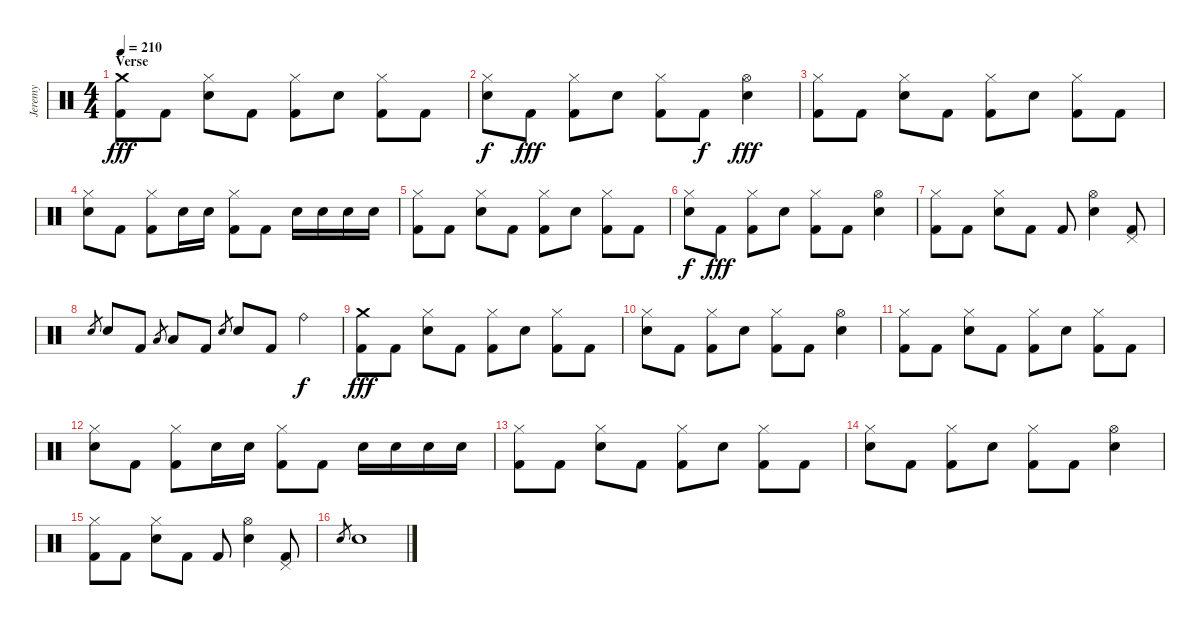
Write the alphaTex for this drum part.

\track ("Jeremy" "Jeremy") {instrument percussion}
\staff {score}
\articulation defaults
\ts (4 4)
\section ("" "Verse")
\tempo 210
\clef neutral
\ks c
("Crash medium (hit)" "Kick (hit) 2").8{dy fff} "Kick (hit) 2".8 ("Hi-Hat (closed)" "Electric Snare (hit)").8 "Kick (hit) 2".8 ("Hi-Hat (closed)" "Kick (hit) 2").8 "Electric Snare (hit)".8 ("Hi-Hat (closed)" "Kick (hit) 2").8 "Kick (hit) 2".8 |
("Hi-Hat (closed)" "Electric Snare (hit)").8{dy f} "Kick (hit) 2".8{dy fff} ("Hi-Hat (closed)" "Kick (hit) 2").8 "Electric Snare (hit)".8 ("Hi-Hat (closed)" "Kick (hit) 2").8 "Kick (hit) 2".8{dy f} ("Hi-Hat (open)" "Electric Snare (hit)").4{dy fff} |
("Hi-Hat (closed)" "Kick (hit) 2").8 "Kick (hit) 2".8 ("Hi-Hat (closed)" "Electric Snare (hit)").8 "Kick (hit) 2".8 ("Hi-Hat (closed)" "Kick (hit) 2").8 "Electric Snare (hit)".8 ("Hi-Hat (closed)" "Kick (hit) 2").8 "Kick (hit) 2".8 |
("Hi-Hat (closed)" "Electric Snare (hit)").8 "Kick (hit) 2".8 ("Hi-Hat (closed)" "Kick (hit) 2").8 "Electric Snare (hit)".16 "Electric Snare (hit)".16 ("Hi-Hat (closed)" "Kick (hit) 2").8 "Kick (hit) 2".8 "Electric Snare (hit)".16 "Electric Snare (hit)".16 "Electric Snare (hit)".16 "Electric Snare (hit)".16 |
("Hi-Hat (closed)" "Kick (hit) 2").8 "Kick (hit) 2".8 ("Hi-Hat (closed)" "Electric Snare (hit)").8 "Kick (hit) 2".8 ("Hi-Hat (closed)" "Kick (hit) 2").8 "Electric Snare (hit)".8 ("Hi-Hat (closed)" "Kick (hit) 2").8 "Kick (hit) 2".8 |
("Hi-Hat (closed)" "Electric Snare (hit)").8{dy f} "Kick (hit) 2".8{dy fff} ("Hi-Hat (closed)" "Kick (hit) 2").8 "Electric Snare (hit)".8 ("Hi-Hat (closed)" "Kick (hit) 2").8 "Kick (hit) 2".8 ("Hi-Hat (open)" "Electric Snare (hit)").4 |
("Hi-Hat (closed)" "Kick (hit) 2").8 "Kick (hit) 2".8 ("Hi-Hat (closed)" "Electric Snare (hit)").8 "Kick (hit) 2".8 "Kick (hit) 2".8 ("Hi-Hat (open)" "Electric Snare (hit)").4 ("Pedal Hi-Hat (hit)" "Kick (hit) 2").8 |
"Electric Snare (hit)".8{gr} "Electric Snare (hit)".8 "Kick (hit) 2".8 "Low Tom (hit)".8{gr} "Low Tom (hit)".8 "Kick (hit) 2".8 "Electric Snare (hit)".8{gr} "Electric Snare (hit)".8 "Kick (hit) 2".8 "Ride (bell)".4{dy f} |
("Crash medium (hit)" "Kick (hit) 2").8{dy fff} "Kick (hit) 2".8 ("Hi-Hat (closed)" "Electric Snare (hit)").8 "Kick (hit) 2".8 ("Hi-Hat (closed)" "Kick (hit) 2").8 "Electric Snare (hit)".8 ("Hi-Hat (closed)" "Kick (hit) 2").8 "Kick (hit) 2".8 |
("Hi-Hat (closed)" "Electric Snare (hit)").8 "Kick (hit) 2".8 ("Hi-Hat (closed)" "Kick (hit) 2").8 "Electric Snare (hit)".8 ("Hi-Hat (closed)" "Kick (hit) 2").8 "Kick (hit) 2".8 ("Hi-Hat (open)" "Electric Snare (hit)").4 |
("Hi-Hat (closed)" "Kick (hit) 2").8 "Kick (hit) 2".8 ("Hi-Hat (closed)" "Electric Snare (hit)").8 "Kick (hit) 2".8 ("Hi-Hat (closed)" "Kick (hit) 2").8 "Electric Snare (hit)".8 ("Hi-Hat (closed)" "Kick (hit) 2").8 "Kick (hit) 2".8 |
("Hi-Hat (closed)" "Electric Snare (hit)").8 "Kick (hit) 2".8 ("Hi-Hat (closed)" "Kick (hit) 2").8 "Electric Snare (hit)".16 "Electric Snare (hit)".16 ("Hi-Hat (closed)" "Kick (hit) 2").8 "Kick (hit) 2".8 "Electric Snare (hit)".16 "Electric Snare (hit)".16 "Electric Snare (hit)".16 "Electric Snare (hit)".16 |
("Hi-Hat (closed)" "Kick (hit) 2").8 "Kick (hit) 2".8 ("Hi-Hat (closed)" "Electric Snare (hit)").8 "Kick (hit) 2".8 ("Hi-Hat (closed)" "Kick (hit) 2").8 "Electric Snare (hit)".8 ("Hi-Hat (closed)" "Kick (hit) 2").8 "Kick (hit) 2".8 |
("Hi-Hat (closed)" "Electric Snare (hit)").8 "Kick (hit) 2".8 ("Hi-Hat (closed)" "Kick (hit) 2").8 "Electric Snare (hit)".8 ("Hi-Hat (closed)" "Kick (hit) 2").8 "Kick (hit) 2".8 ("Hi-Hat (open)" "Electric Snare (hit)").4 |
("Hi-Hat (closed)" "Kick (hit) 2").8 "Kick (hit) 2".8 ("Hi-Hat (closed)" "Electric Snare (hit)").8 "Kick (hit) 2".8 "Kick (hit) 2".8 ("Hi-Hat (open)" "Electric Snare (hit)").4 ("Pedal Hi-Hat (hit)" "Kick (hit) 2").8 |
"Electric Snare (hit)".8{gr} "Electric Snare (hit)".1
